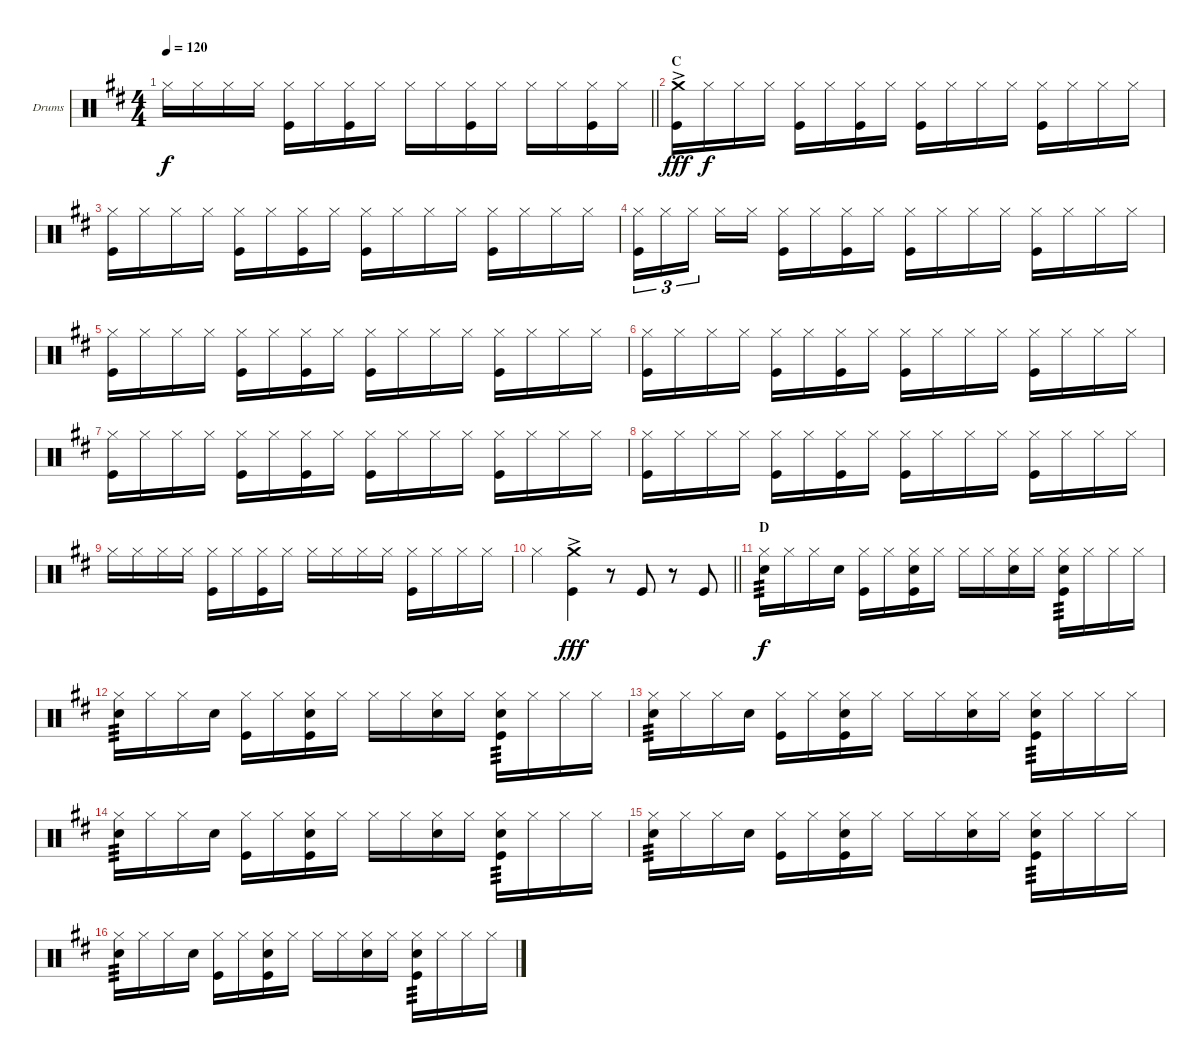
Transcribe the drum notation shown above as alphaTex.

\bracketExtendMode groupsimilarinstruments
\firstSystemTrackNameOrientation horizontal
\otherSystemsTrackNameOrientation horizontal
\track ("Drumkit" "Drums") {instrument percussion}
\staff {score}
\articulation defaults
\ts (4 4)
\tempo 120
\clef neutral
\barLineRight lightlight
\ks d "Hi-Hat (closed)".16{dy f} "Hi-Hat (closed)".16 "Hi-Hat (closed)".16 "Hi-Hat (closed)".16
("Hi-Hat (closed)" "Kick (hit)").16 "Hi-Hat (closed)".16 ("Hi-Hat (closed)" "Kick (hit)").16 "Hi-Hat (closed)".16 "Hi-Hat (closed)".16 "Hi-Hat (closed)".16 ("Hi-Hat (closed)" "Kick (hit)").16 "Hi-Hat (closed)".16 "Hi-Hat (closed)".16 "Hi-Hat (closed)".16 ("Hi-Hat (closed)" "Kick (hit)").16 "Hi-Hat (closed)".16 |
\section ("" "C")
("Crash medium (hit)"{ac} "Kick (hit)").16{dy fff} "Hi-Hat (closed)".16{dy f} "Hi-Hat (closed)".16 "Hi-Hat (closed)".16 ("Hi-Hat (closed)" "Kick (hit)").16 "Hi-Hat (closed)".16 ("Hi-Hat (closed)" "Kick (hit)").16 "Hi-Hat (closed)".16 ("Hi-Hat (closed)" "Kick (hit)").16 "Hi-Hat (closed)".16 "Hi-Hat (closed)".16 "Hi-Hat (closed)".16 ("Hi-Hat (closed)" "Kick (hit)").16 "Hi-Hat (closed)".16 "Hi-Hat (closed)".16 "Hi-Hat (closed)".16 |
("Hi-Hat (closed)" "Kick (hit)").16 "Hi-Hat (closed)".16 "Hi-Hat (closed)".16 "Hi-Hat (closed)".16 ("Hi-Hat (closed)" "Kick (hit)").16 "Hi-Hat (closed)".16 ("Hi-Hat (closed)" "Kick (hit)").16 "Hi-Hat (closed)".16 ("Hi-Hat (closed)" "Kick (hit)").16 "Hi-Hat (closed)".16 "Hi-Hat (closed)".16 "Hi-Hat (closed)".16 ("Hi-Hat (closed)" "Kick (hit)").16 "Hi-Hat (closed)".16 "Hi-Hat (closed)".16 "Hi-Hat (closed)".16 |
("Hi-Hat (closed)" "Kick (hit)").16{tu (3 2)} "Hi-Hat (closed)".16{tu (3 2)} "Hi-Hat (closed)".16{tu (3 2)} "Hi-Hat (closed)".16 "Hi-Hat (closed)".16 ("Hi-Hat (closed)" "Kick (hit)").16 "Hi-Hat (closed)".16 ("Hi-Hat (closed)" "Kick (hit)").16 "Hi-Hat (closed)".16 ("Hi-Hat (closed)" "Kick (hit)").16 "Hi-Hat (closed)".16 "Hi-Hat (closed)".16 "Hi-Hat (closed)".16 ("Hi-Hat (closed)" "Kick (hit)").16 "Hi-Hat (closed)".16 "Hi-Hat (closed)".16 "Hi-Hat (closed)".16 |
("Hi-Hat (closed)" "Kick (hit)").16 "Hi-Hat (closed)".16 "Hi-Hat (closed)".16 "Hi-Hat (closed)".16 ("Hi-Hat (closed)" "Kick (hit)").16 "Hi-Hat (closed)".16 ("Hi-Hat (closed)" "Kick (hit)").16 "Hi-Hat (closed)".16 ("Hi-Hat (closed)" "Kick (hit)").16 "Hi-Hat (closed)".16 "Hi-Hat (closed)".16 "Hi-Hat (closed)".16 ("Hi-Hat (closed)" "Kick (hit)").16 "Hi-Hat (closed)".16 "Hi-Hat (closed)".16 "Hi-Hat (closed)".16 |
("Hi-Hat (closed)" "Kick (hit)").16 "Hi-Hat (closed)".16 "Hi-Hat (closed)".16 "Hi-Hat (closed)".16 ("Hi-Hat (closed)" "Kick (hit)").16 "Hi-Hat (closed)".16 ("Hi-Hat (closed)" "Kick (hit)").16 "Hi-Hat (closed)".16 ("Hi-Hat (closed)" "Kick (hit)").16 "Hi-Hat (closed)".16 "Hi-Hat (closed)".16 "Hi-Hat (closed)".16 ("Hi-Hat (closed)" "Kick (hit)").16 "Hi-Hat (closed)".16 "Hi-Hat (closed)".16 "Hi-Hat (closed)".16 |
("Hi-Hat (closed)" "Kick (hit)").16 "Hi-Hat (closed)".16 "Hi-Hat (closed)".16 "Hi-Hat (closed)".16 ("Hi-Hat (closed)" "Kick (hit)").16 "Hi-Hat (closed)".16 ("Hi-Hat (closed)" "Kick (hit)").16 "Hi-Hat (closed)".16 ("Hi-Hat (closed)" "Kick (hit)").16 "Hi-Hat (closed)".16 "Hi-Hat (closed)".16 "Hi-Hat (closed)".16 ("Hi-Hat (closed)" "Kick (hit)").16 "Hi-Hat (closed)".16 "Hi-Hat (closed)".16 "Hi-Hat (closed)".16 |
("Hi-Hat (closed)" "Kick (hit)").16 "Hi-Hat (closed)".16 "Hi-Hat (closed)".16 "Hi-Hat (closed)".16 ("Hi-Hat (closed)" "Kick (hit)").16 "Hi-Hat (closed)".16 ("Hi-Hat (closed)" "Kick (hit)").16 "Hi-Hat (closed)".16 ("Hi-Hat (closed)" "Kick (hit)").16 "Hi-Hat (closed)".16 "Hi-Hat (closed)".16 "Hi-Hat (closed)".16 ("Hi-Hat (closed)" "Kick (hit)").16 "Hi-Hat (closed)".16 "Hi-Hat (closed)".16 "Hi-Hat (closed)".16 |
"Hi-Hat (closed)".16 "Hi-Hat (closed)".16 "Hi-Hat (closed)".16 "Hi-Hat (closed)".16 ("Hi-Hat (closed)" "Kick (hit)").16 "Hi-Hat (closed)".16 ("Hi-Hat (closed)" "Kick (hit)").16 "Hi-Hat (closed)".16 "Hi-Hat (closed)".16 "Hi-Hat (closed)".16 "Hi-Hat (closed)".16 "Hi-Hat (closed)".16 ("Hi-Hat (closed)" "Kick (hit)").16 "Hi-Hat (closed)".16 "Hi-Hat (closed)".16 "Hi-Hat (closed)".16 |
\barLineRight lightlight "Hi-Hat (closed)".4
("Crash medium (hit)"{ac} "Kick (hit)").4{dy fff} r.8 "Kick (hit)".8 r.8 "Kick (hit)".8 |
\section ("" "D")
("Hi-Hat (closed)" "Snare (hit) 2").16{tp 3 dy f} "Hi-Hat (closed)".16 "Hi-Hat (closed)".16 "Snare (hit) 2".16 ("Hi-Hat (closed)" "Kick (hit)").16 "Hi-Hat (closed)".16 ("Hi-Hat (closed)" "Snare (hit) 2" "Kick (hit)").16 "Hi-Hat (closed)".16 "Hi-Hat (closed)".16 "Hi-Hat (closed)".16 ("Hi-Hat (closed)" "Snare (hit) 2").16 "Hi-Hat (closed)".16 ("Hi-Hat (closed)" "Snare (hit) 2" "Kick (hit)").16{tp 3} "Hi-Hat (closed)".16 "Hi-Hat (closed)".16 "Hi-Hat (closed)".16 |
("Hi-Hat (closed)" "Snare (hit) 2").16{tp 3} "Hi-Hat (closed)".16 "Hi-Hat (closed)".16 "Snare (hit) 2".16 ("Hi-Hat (closed)" "Kick (hit)").16 "Hi-Hat (closed)".16 ("Hi-Hat (closed)" "Snare (hit) 2" "Kick (hit)").16 "Hi-Hat (closed)".16 "Hi-Hat (closed)".16 "Hi-Hat (closed)".16 ("Hi-Hat (closed)" "Snare (hit) 2").16 "Hi-Hat (closed)".16 ("Hi-Hat (closed)" "Snare (hit) 2" "Kick (hit)").16{tp 3} "Hi-Hat (closed)".16 "Hi-Hat (closed)".16 "Hi-Hat (closed)".16 |
("Hi-Hat (closed)" "Snare (hit) 2").16{tp 3} "Hi-Hat (closed)".16 "Hi-Hat (closed)".16 "Snare (hit) 2".16 ("Hi-Hat (closed)" "Kick (hit)").16 "Hi-Hat (closed)".16 ("Hi-Hat (closed)" "Snare (hit) 2" "Kick (hit)").16 "Hi-Hat (closed)".16 "Hi-Hat (closed)".16 "Hi-Hat (closed)".16 ("Hi-Hat (closed)" "Snare (hit) 2").16 "Hi-Hat (closed)".16 ("Hi-Hat (closed)" "Snare (hit) 2" "Kick (hit)").16{tp 3} "Hi-Hat (closed)".16 "Hi-Hat (closed)".16 "Hi-Hat (closed)".16 |
("Hi-Hat (closed)" "Snare (hit) 2").16{tp 3} "Hi-Hat (closed)".16 "Hi-Hat (closed)".16 "Snare (hit) 2".16 ("Hi-Hat (closed)" "Kick (hit)").16 "Hi-Hat (closed)".16 ("Hi-Hat (closed)" "Snare (hit) 2" "Kick (hit)").16 "Hi-Hat (closed)".16 "Hi-Hat (closed)".16 "Hi-Hat (closed)".16 ("Hi-Hat (closed)" "Snare (hit) 2").16 "Hi-Hat (closed)".16 ("Hi-Hat (closed)" "Snare (hit) 2" "Kick (hit)").16{tp 3} "Hi-Hat (closed)".16 "Hi-Hat (closed)".16 "Hi-Hat (closed)".16 |
("Hi-Hat (closed)" "Snare (hit) 2").16{tp 3} "Hi-Hat (closed)".16 "Hi-Hat (closed)".16 "Snare (hit) 2".16 ("Hi-Hat (closed)" "Kick (hit)").16 "Hi-Hat (closed)".16 ("Hi-Hat (closed)" "Snare (hit) 2" "Kick (hit)").16 "Hi-Hat (closed)".16 "Hi-Hat (closed)".16 "Hi-Hat (closed)".16 ("Hi-Hat (closed)" "Snare (hit) 2").16 "Hi-Hat (closed)".16 ("Hi-Hat (closed)" "Snare (hit) 2" "Kick (hit)").16{tp 3} "Hi-Hat (closed)".16 "Hi-Hat (closed)".16 "Hi-Hat (closed)".16 |
("Hi-Hat (closed)" "Snare (hit) 2").16{tp 3} "Hi-Hat (closed)".16 "Hi-Hat (closed)".16 "Snare (hit) 2".16 ("Hi-Hat (closed)" "Kick (hit)").16 "Hi-Hat (closed)".16 ("Hi-Hat (closed)" "Snare (hit) 2" "Kick (hit)").16 "Hi-Hat (closed)".16 "Hi-Hat (closed)".16 "Hi-Hat (closed)".16 ("Hi-Hat (closed)" "Snare (hit) 2").16 "Hi-Hat (closed)".16 ("Hi-Hat (closed)" "Snare (hit) 2" "Kick (hit)").16{tp 3} "Hi-Hat (closed)".16 "Hi-Hat (closed)".16 "Hi-Hat (closed)".16
